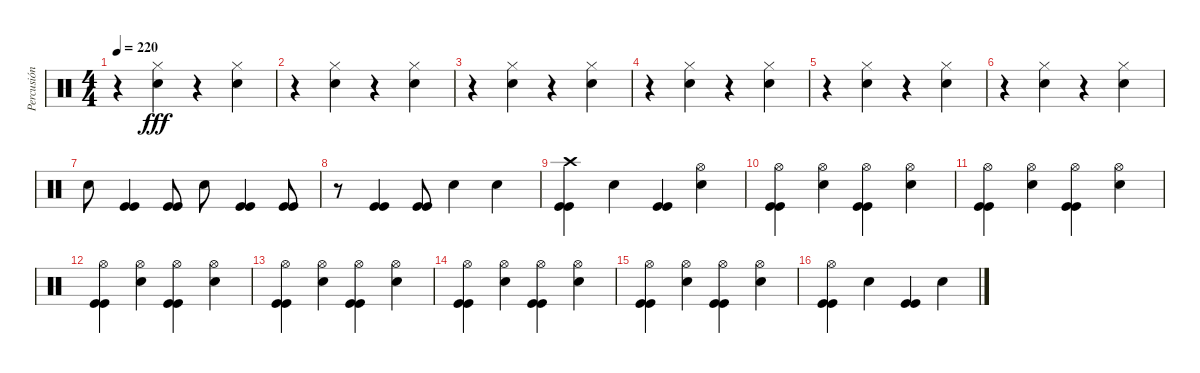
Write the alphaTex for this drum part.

\track ("Percusión" "Percusión") {instrument percussion}
\staff {score}
\articulation defaults
\ts (4 4)
\tempo 220
\clef neutral
\ks c
r.4{dy fff} ("Hi-Hat (closed)" "Snare (hit) 2").4 r.4 ("Hi-Hat (closed)" "Snare (hit) 2").4 |
r.4 ("Hi-Hat (closed)" "Snare (hit) 2").4 r.4 ("Hi-Hat (closed)" "Snare (hit) 2").4 |
r.4 ("Hi-Hat (closed)" "Snare (hit) 2").4 r.4 ("Hi-Hat (closed)" "Snare (hit) 2").4 |
r.4 ("Hi-Hat (closed)" "Snare (hit) 2").4 r.4 ("Hi-Hat (closed)" "Snare (hit) 2").4 |
r.4 ("Hi-Hat (closed)" "Snare (hit) 2").4 r.4 ("Hi-Hat (closed)" "Snare (hit) 2").4 |
r.4 ("Hi-Hat (closed)" "Snare (hit) 2").4 r.4 ("Hi-Hat (closed)" "Snare (hit) 2").4 |
"Snare (hit) 2".8 ("Kick (hit)" "Kick (hit)").4 ("Kick (hit)" "Kick (hit)").8 "Snare (hit) 2".8 ("Kick (hit)" "Kick (hit)").4 ("Kick (hit)" "Kick (hit)").8 |
r.8 ("Kick (hit)" "Kick (hit)").4 ("Kick (hit)" "Kick (hit)").8 "Snare (hit) 2".4 "Snare (hit) 2".4 |
("Crash high (hit)" "Kick (hit)" "Kick (hit)").4 "Snare (hit) 2".4 ("Kick (hit)" "Kick (hit)").4 ("Hi-Hat (open)" "Snare (hit) 2").4 |
("Hi-Hat (open)" "Kick (hit)" "Kick (hit)").4 ("Hi-Hat (open)" "Snare (hit) 2").4 ("Hi-Hat (open)" "Kick (hit)" "Kick (hit)").4 ("Hi-Hat (open)" "Snare (hit) 2").4 |
("Hi-Hat (open)" "Kick (hit)" "Kick (hit)").4 ("Hi-Hat (open)" "Snare (hit) 2").4 ("Hi-Hat (open)" "Kick (hit)" "Kick (hit)").4 ("Hi-Hat (open)" "Snare (hit) 2").4 |
("Hi-Hat (open)" "Kick (hit)" "Kick (hit)").4 ("Hi-Hat (open)" "Snare (hit) 2").4 ("Hi-Hat (open)" "Kick (hit)" "Kick (hit)").4 ("Hi-Hat (open)" "Snare (hit) 2").4 |
("Hi-Hat (open)" "Kick (hit)" "Kick (hit)").4 ("Hi-Hat (open)" "Snare (hit) 2").4 ("Hi-Hat (open)" "Kick (hit)" "Kick (hit)").4 ("Hi-Hat (open)" "Snare (hit) 2").4 |
("Hi-Hat (open)" "Kick (hit)" "Kick (hit)").4 ("Hi-Hat (open)" "Snare (hit) 2").4 ("Hi-Hat (open)" "Kick (hit)" "Kick (hit)").4 ("Hi-Hat (open)" "Snare (hit) 2").4 |
("Hi-Hat (open)" "Kick (hit)" "Kick (hit)").4 ("Hi-Hat (open)" "Snare (hit) 2").4 ("Hi-Hat (open)" "Kick (hit)" "Kick (hit)").4 ("Hi-Hat (open)" "Snare (hit) 2").4 |
("Hi-Hat (open)" "Kick (hit)" "Kick (hit)").4 "Snare (hit) 2".4 ("Kick (hit)" "Kick (hit)").4 "Snare (hit) 2".4
